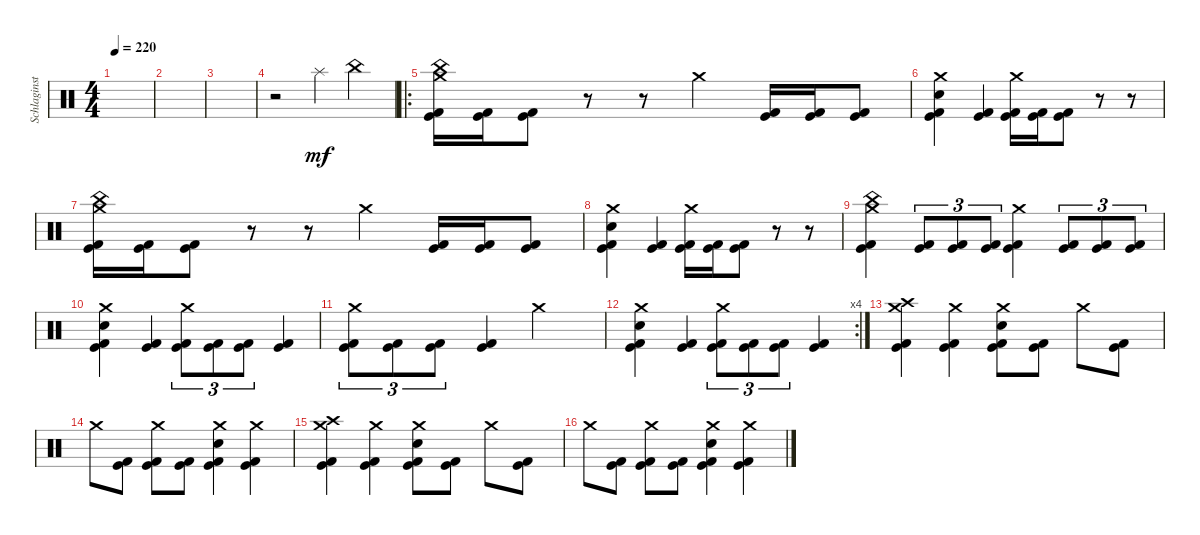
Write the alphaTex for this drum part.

\track ("Schlaginstrumente - Auswahl" "Schlaginst") {instrument percussion}
\staff {score}
\articulation defaults
\ts (4 4)
\tempo 220
\clef neutral
\ks c
|
|
|
r.2 "Splash (hit)".4{dy mf} "China (hit)".4 |
\ro
("Crash medium (hit)" "China (hit)" "Kick (hit) 2" "Kick (hit)").16 ("Kick (hit) 2" "Kick (hit)").16 ("Kick (hit) 2" "Kick (hit)").8 r.8 r.8 "Crash medium (hit)".4 ("Kick (hit) 2" "Kick (hit)").16 ("Kick (hit) 2" "Kick (hit)").16 ("Kick (hit) 2" "Kick (hit)").8 |
("Crash medium (hit)" "Electric Snare (hit)" "Kick (hit) 2" "Kick (hit)").4 ("Kick (hit) 2" "Kick (hit)").4 ("Crash medium (hit)" "Kick (hit) 2" "Kick (hit)").16 ("Kick (hit) 2" "Kick (hit)").16 ("Kick (hit) 2" "Kick (hit)").8 r.8 r.8 |
("Crash medium (hit)" "China (hit)" "Kick (hit) 2" "Kick (hit)").16 ("Kick (hit) 2" "Kick (hit)").16 ("Kick (hit) 2" "Kick (hit)").8 r.8 r.8 "Crash medium (hit)".4 ("Kick (hit) 2" "Kick (hit)").16 ("Kick (hit) 2" "Kick (hit)").16 ("Kick (hit) 2" "Kick (hit)").8 |
("Crash medium (hit)" "Electric Snare (hit)" "Kick (hit) 2" "Kick (hit)").4 ("Kick (hit) 2" "Kick (hit)").4 ("Crash medium (hit)" "Kick (hit) 2" "Kick (hit)").16 ("Kick (hit) 2" "Kick (hit)").16 ("Kick (hit) 2" "Kick (hit)").8 r.8 r.8 |
("Crash medium (hit)" "China (hit)" "Kick (hit) 2" "Kick (hit)").4 ("Kick (hit) 2" "Kick (hit)").8{tu (3 2)} ("Kick (hit) 2" "Kick (hit)").8{tu (3 2)} ("Kick (hit) 2" "Kick (hit)").8{tu (3 2)} ("Crash medium (hit)" "Kick (hit) 2" "Kick (hit)").4 ("Kick (hit) 2" "Kick (hit)").8{tu (3 2)} ("Kick (hit) 2" "Kick (hit)").8{tu (3 2)} ("Kick (hit) 2" "Kick (hit)").8{tu (3 2)} |
("Crash medium (hit)" "Electric Snare (hit)" "Kick (hit) 2" "Kick (hit)").4 ("Kick (hit) 2" "Kick (hit)").4 ("Crash medium (hit)" "Kick (hit) 2" "Kick (hit)").8{tu (3 2)} ("Kick (hit) 2" "Kick (hit)").8{tu (3 2)} ("Kick (hit) 2" "Kick (hit)").8{tu (3 2)} ("Kick (hit) 2" "Kick (hit)").4 |
("Crash medium (hit)" "Kick (hit) 2" "Kick (hit)").8{tu (3 2)} ("Kick (hit) 2" "Kick (hit)").8{tu (3 2)} ("Kick (hit) 2" "Kick (hit)").8{tu (3 2)} ("Kick (hit) 2" "Kick (hit)").4 "Crash medium (hit)".2 |
\rc 4
("Crash medium (hit)" "Electric Snare (hit)" "Kick (hit) 2" "Kick (hit)").4 ("Kick (hit) 2" "Kick (hit)").4 ("Crash medium (hit)" "Kick (hit) 2" "Kick (hit)").8{tu (3 2)} ("Kick (hit) 2" "Kick (hit)").8{tu (3 2)} ("Kick (hit) 2" "Kick (hit)").8{tu (3 2)} ("Kick (hit) 2" "Kick (hit)").4 |
("Crash medium (hit)" "Crash high (hit)" "Kick (hit) 2" "Kick (hit)").4 ("Crash medium (hit)" "Kick (hit) 2" "Kick (hit)").4 ("Crash medium (hit)" "Electric Snare (hit)" "Kick (hit) 2" "Kick (hit)").8 ("Kick (hit) 2" "Kick (hit)").8 "Crash medium (hit)".8 ("Kick (hit) 2" "Kick (hit)").8 |
"Crash medium (hit)".8 ("Kick (hit) 2" "Kick (hit)").8 ("Crash medium (hit)" "Kick (hit) 2" "Kick (hit)").8 ("Kick (hit) 2" "Kick (hit)").8 ("Crash medium (hit)" "Electric Snare (hit)" "Kick (hit) 2" "Kick (hit)").4 ("Crash medium (hit)" "Kick (hit) 2" "Kick (hit)").4 |
("Crash medium (hit)" "Crash high (hit)" "Kick (hit) 2" "Kick (hit)").4 ("Crash medium (hit)" "Kick (hit) 2" "Kick (hit)").4 ("Crash medium (hit)" "Electric Snare (hit)" "Kick (hit) 2" "Kick (hit)").8 ("Kick (hit) 2" "Kick (hit)").8 "Crash medium (hit)".8 ("Kick (hit) 2" "Kick (hit)").8 |
"Crash medium (hit)".8 ("Kick (hit) 2" "Kick (hit)").8 ("Crash medium (hit)" "Kick (hit) 2" "Kick (hit)").8 ("Kick (hit) 2" "Kick (hit)").8 ("Crash medium (hit)" "Electric Snare (hit)" "Kick (hit) 2" "Kick (hit)").4 ("Crash medium (hit)" "Kick (hit) 2" "Kick (hit)").4
